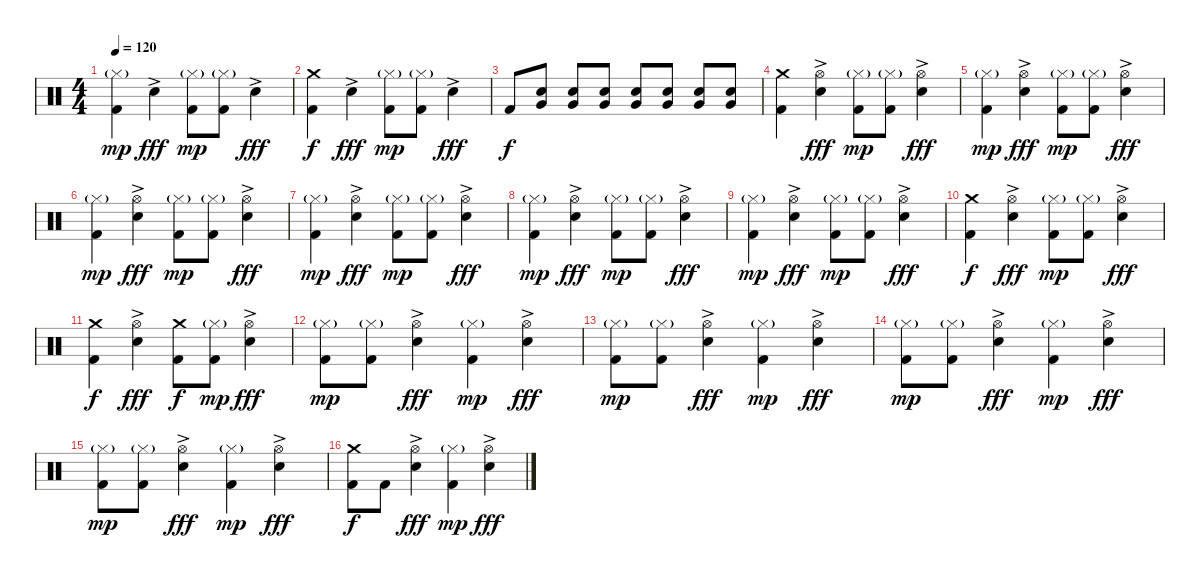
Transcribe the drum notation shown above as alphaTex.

\track "" {instrument percussion}
\staff {score}
\articulation defaults
\ts (4 4)
\tempo 120
\clef neutral
\ks c
("Kick (hit) 2" "Hi-Hat (closed)"{g}).4{dy mp} "Electric Snare (hit)"{ac}.4{dy fff} ("Kick (hit) 2" "Hi-Hat (closed)"{g}).8{dy mp} ("Kick (hit) 2" "Hi-Hat (closed)"{g}).8 "Electric Snare (hit)"{ac}.4{dy fff} |
("Kick (hit) 2" "Crash medium (hit)").4{dy f} "Electric Snare (hit)"{ac}.4{dy fff} ("Kick (hit) 2" "Hi-Hat (closed)"{g}).8{dy mp} ("Kick (hit) 2" "Hi-Hat (closed)"{g}).8 "Electric Snare (hit)"{ac}.4{dy fff} |
"Kick (hit) 2".8{dy f} ("Electric Snare (hit)" "Very Low Tom (hit)").8 ("Electric Snare (hit)" "Very Low Tom (hit)").8 ("Electric Snare (hit)" "Very Low Tom (hit)").8 ("Electric Snare (hit)" "Very Low Tom (hit)").8 ("Electric Snare (hit)" "Very Low Tom (hit)").8 ("Electric Snare (hit)" "Very Low Tom (hit)").8 ("Electric Snare (hit)" "Very Low Tom (hit)").8 |
("Kick (hit) 2" "Crash medium (hit)").4 ("Electric Snare (hit)"{ac} "Hi-Hat (open)").4{dy fff} ("Kick (hit) 2" "Hi-Hat (closed)"{g}).8{dy mp} ("Kick (hit) 2" "Hi-Hat (closed)"{g}).8 ("Electric Snare (hit)"{ac} "Hi-Hat (open)").4{dy fff} |
("Kick (hit) 2" "Hi-Hat (closed)"{g}).4{dy mp} ("Electric Snare (hit)"{ac} "Hi-Hat (open)").4{dy fff} ("Kick (hit) 2" "Hi-Hat (closed)"{g}).8{dy mp} ("Kick (hit) 2" "Hi-Hat (closed)"{g}).8 ("Electric Snare (hit)"{ac} "Hi-Hat (open)").4{dy fff} |
("Kick (hit) 2" "Hi-Hat (closed)"{g}).4{dy mp} ("Electric Snare (hit)"{ac} "Hi-Hat (open)").4{dy fff} ("Kick (hit) 2" "Hi-Hat (closed)"{g}).8{dy mp} ("Kick (hit) 2" "Hi-Hat (closed)"{g}).8 ("Electric Snare (hit)"{ac} "Hi-Hat (open)").4{dy fff} |
("Kick (hit) 2" "Hi-Hat (closed)"{g}).4{dy mp} ("Electric Snare (hit)"{ac} "Hi-Hat (open)").4{dy fff} ("Kick (hit) 2" "Hi-Hat (closed)"{g}).8{dy mp} ("Kick (hit) 2" "Hi-Hat (closed)"{g}).8 ("Electric Snare (hit)"{ac} "Hi-Hat (open)").4{dy fff} |
("Kick (hit) 2" "Hi-Hat (closed)"{g}).4{dy mp} ("Electric Snare (hit)"{ac} "Hi-Hat (open)").4{dy fff} ("Kick (hit) 2" "Hi-Hat (closed)"{g}).8{dy mp} ("Kick (hit) 2" "Hi-Hat (closed)"{g}).8 ("Electric Snare (hit)"{ac} "Hi-Hat (open)").4{dy fff} |
("Kick (hit) 2" "Hi-Hat (closed)"{g}).4{dy mp} ("Electric Snare (hit)"{ac} "Hi-Hat (open)").4{dy fff} ("Kick (hit) 2" "Hi-Hat (closed)"{g}).8{dy mp} ("Kick (hit) 2" "Hi-Hat (closed)"{g}).8 ("Electric Snare (hit)"{ac} "Hi-Hat (open)").4{dy fff} |
("Kick (hit) 2" "Crash medium (hit)").4{dy f} ("Electric Snare (hit)"{ac} "Hi-Hat (open)").4{dy fff} ("Kick (hit) 2" "Hi-Hat (closed)"{g}).8{dy mp} ("Kick (hit) 2" "Hi-Hat (closed)"{g}).8 ("Electric Snare (hit)"{ac} "Hi-Hat (open)").4{dy fff} |
("Kick (hit) 2" "Crash medium (hit)").4{dy f} ("Electric Snare (hit)"{ac} "Hi-Hat (open)").4{dy fff} ("Kick (hit) 2" "Crash medium (hit)").8{dy f} ("Kick (hit) 2" "Hi-Hat (closed)"{g}).8{dy mp} ("Electric Snare (hit)"{ac} "Hi-Hat (open)").4{dy fff} |
("Kick (hit) 2" "Hi-Hat (closed)"{g}).8{dy mp} ("Kick (hit) 2" "Hi-Hat (closed)"{g}).8 ("Electric Snare (hit)"{ac} "Hi-Hat (open)").4{dy fff} ("Kick (hit) 2" "Hi-Hat (closed)"{g}).4{dy mp} ("Electric Snare (hit)"{ac} "Hi-Hat (open)").4{dy fff} |
("Kick (hit) 2" "Hi-Hat (closed)"{g}).8{dy mp} ("Kick (hit) 2" "Hi-Hat (closed)"{g}).8 ("Electric Snare (hit)"{ac} "Hi-Hat (open)").4{dy fff} ("Kick (hit) 2" "Hi-Hat (closed)"{g}).4{dy mp} ("Electric Snare (hit)"{ac} "Hi-Hat (open)").4{dy fff} |
("Kick (hit) 2" "Hi-Hat (closed)"{g}).8{dy mp} ("Kick (hit) 2" "Hi-Hat (closed)"{g}).8 ("Electric Snare (hit)"{ac} "Hi-Hat (open)").4{dy fff} ("Kick (hit) 2" "Hi-Hat (closed)"{g}).4{dy mp} ("Electric Snare (hit)"{ac} "Hi-Hat (open)").4{dy fff} |
("Kick (hit) 2" "Hi-Hat (closed)"{g}).8{dy mp} ("Kick (hit) 2" "Hi-Hat (closed)"{g}).8 ("Electric Snare (hit)"{ac} "Hi-Hat (open)").4{dy fff} ("Kick (hit) 2" "Hi-Hat (closed)"{g}).4{dy mp} ("Electric Snare (hit)"{ac} "Hi-Hat (open)").4{dy fff} |
("Kick (hit) 2" "Crash medium (hit)").8{dy f} "Kick (hit) 2".8 ("Electric Snare (hit)"{ac} "Hi-Hat (open)").4{dy fff} ("Kick (hit) 2" "Hi-Hat (closed)"{g}).4{dy mp} ("Electric Snare (hit)"{ac} "Hi-Hat (open)").4{dy fff}
